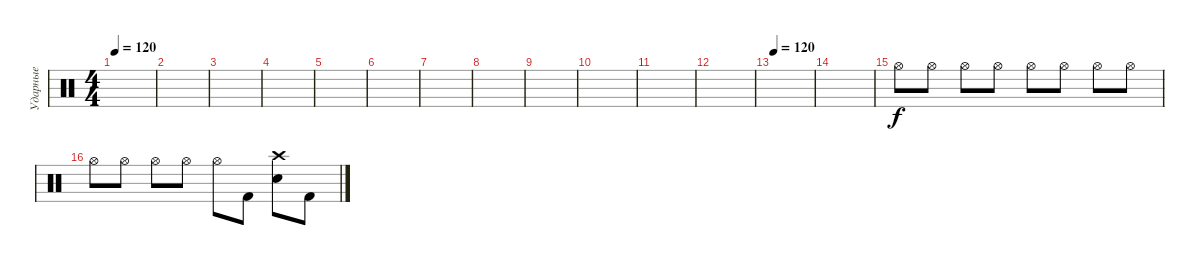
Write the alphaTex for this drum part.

\track ("Ударные" "Ударные") {instrument percussion}
\staff {score}
\articulation defaults
\ts (4 4)
\tempo 120
\clef neutral
\ks c
|
|
|
|
|
|
|
|
|
|
|
|
\tempo 120
|
|
"Hi-Hat (open)".8 "Hi-Hat (open)".8 "Hi-Hat (open)".8 "Hi-Hat (open)".8 "Hi-Hat (open)".8 "Hi-Hat (open)".8 "Hi-Hat (open)".8 "Hi-Hat (open)".8 |
"Hi-Hat (open)".8 "Hi-Hat (open)".8 "Hi-Hat (open)".8 "Hi-Hat (open)".8 "Hi-Hat (open)".8 "Kick (hit) 2".8 ("Crash high (hit)" "Snare (hit) 2").8 "Kick (hit) 2".8
